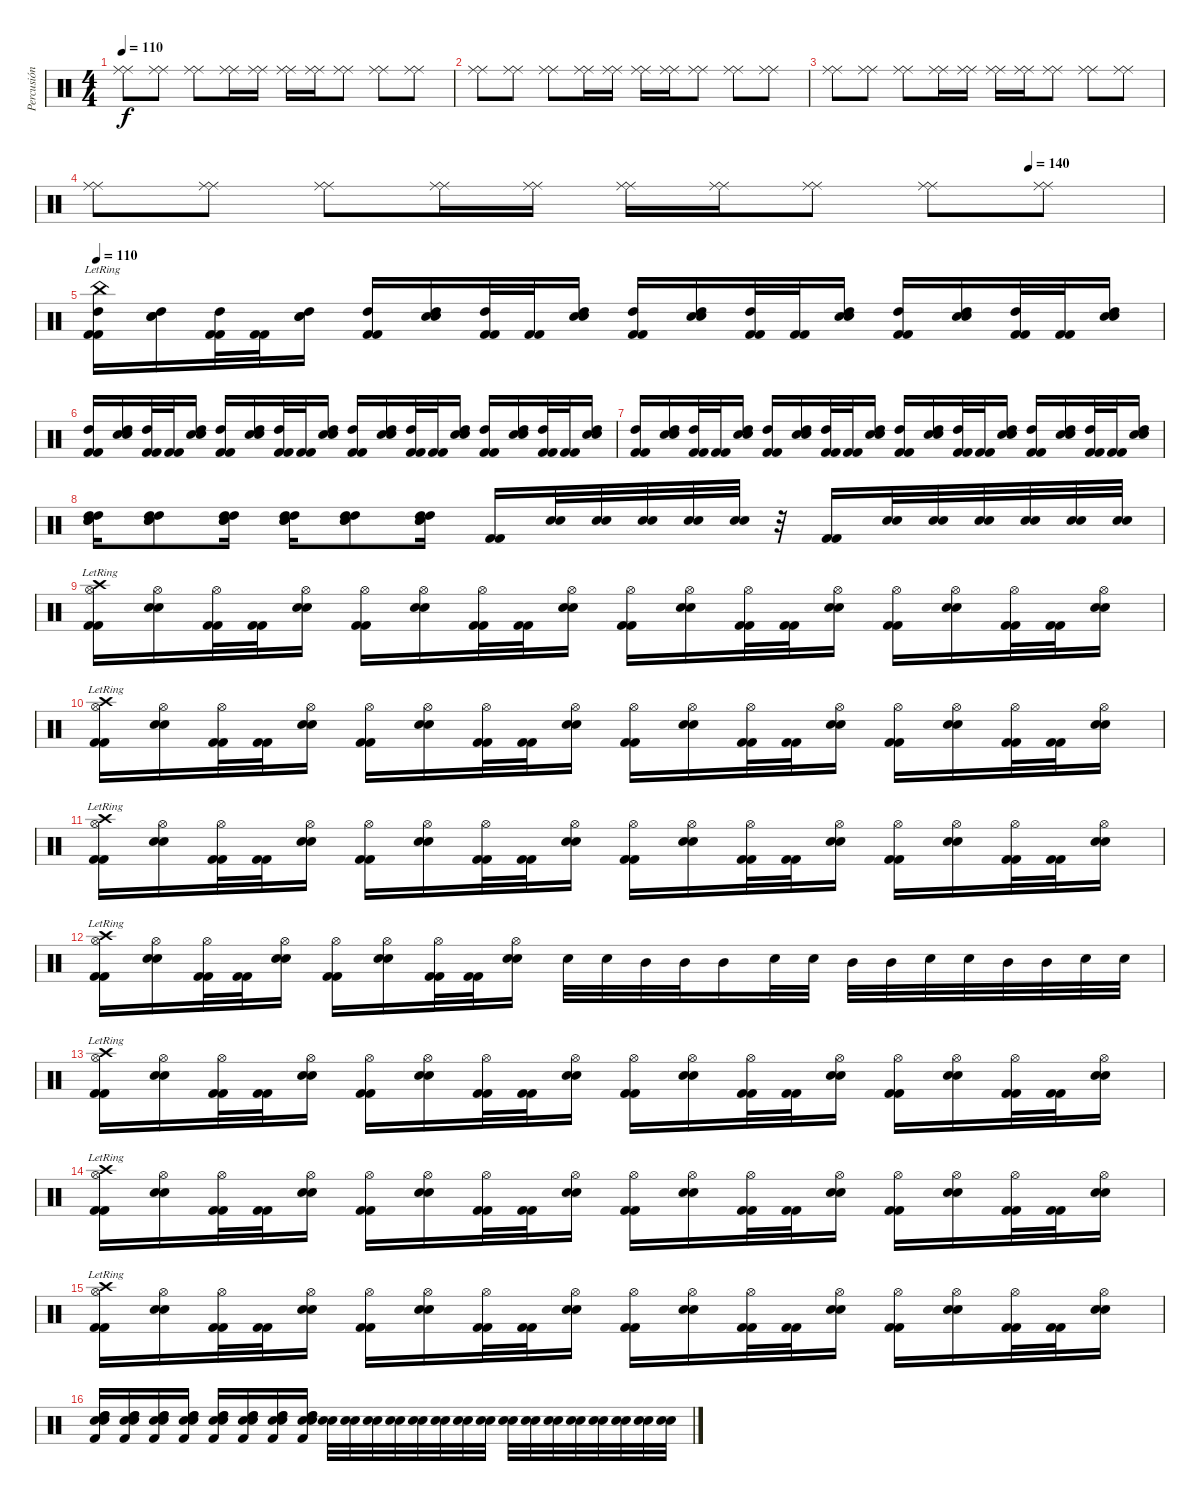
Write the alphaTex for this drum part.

\track ("Percusión" "Percusión") {instrument percussion}
\staff {score}
\articulation defaults
\ts (4 4)
\tempo 110
\clef neutral
\ks c
("Ride (middle)" "Ride (middle)").8{dy f} ("Ride (middle)" "Ride (middle)").8 ("Ride (middle)" "Ride (middle)").8 ("Ride (middle)" "Ride (middle)").16 ("Ride (middle)" "Ride (middle)").16 ("Ride (middle)" "Ride (middle)").16 ("Ride (middle)" "Ride (middle)").16 ("Ride (middle)" "Ride (middle)").8 ("Ride (middle)" "Ride (middle)").8 ("Ride (middle)" "Ride (middle)").8 |
("Ride (middle)" "Ride (middle)").8 ("Ride (middle)" "Ride (middle)").8 ("Ride (middle)" "Ride (middle)").8 ("Ride (middle)" "Ride (middle)").16 ("Ride (middle)" "Ride (middle)").16 ("Ride (middle)" "Ride (middle)").16 ("Ride (middle)" "Ride (middle)").16 ("Ride (middle)" "Ride (middle)").8 ("Ride (middle)" "Ride (middle)").8 ("Ride (middle)" "Ride (middle)").8 |
("Ride (middle)" "Ride (middle)").8 ("Ride (middle)" "Ride (middle)").8 ("Ride (middle)" "Ride (middle)").8 ("Ride (middle)" "Ride (middle)").16 ("Ride (middle)" "Ride (middle)").16 ("Ride (middle)" "Ride (middle)").16 ("Ride (middle)" "Ride (middle)").16 ("Ride (middle)" "Ride (middle)").8 ("Ride (middle)" "Ride (middle)").8 ("Ride (middle)" "Ride (middle)").8 |
\tempo (140 0.875)
("Ride (middle)" "Ride (middle)").8 ("Ride (middle)" "Ride (middle)").8 ("Ride (middle)" "Ride (middle)").8 ("Ride (middle)" "Ride (middle)").16 ("Ride (middle)" "Ride (middle)").16 ("Ride (middle)" "Ride (middle)").16 ("Ride (middle)" "Ride (middle)").16 ("Ride (middle)" "Ride (middle)").8 ("Ride (middle)" "Ride (middle)").8 ("Ride (middle)" "Ride (middle)").8 |
\tempo 110
("Kick (hit) 2" "Kick (hit) 2" "High Tom (hit)" "China (hit)"{lr}).16 ("Snare (hit) 2" "Snare (hit) 2" "High Tom (hit)").16 ("Kick (hit) 2" "Kick (hit) 2" "High Tom (hit)").32 ("Kick (hit) 2" "Kick (hit) 2").32 ("Snare (hit) 2" "Snare (hit) 2" "High Tom (hit)").16 ("Kick (hit) 2" "Kick (hit) 2" "High Tom (hit)").16 ("Snare (hit) 2" "Snare (hit) 2" "High Tom (hit)").16 ("Kick (hit) 2" "Kick (hit) 2" "High Tom (hit)").32 ("Kick (hit) 2" "Kick (hit) 2").32 ("Snare (hit) 2" "Snare (hit) 2" "High Tom (hit)").16 ("Kick (hit) 2" "Kick (hit) 2" "High Tom (hit)").16 ("Snare (hit) 2" "Snare (hit) 2" "High Tom (hit)").16 ("Kick (hit) 2" "Kick (hit) 2" "High Tom (hit)").32 ("Kick (hit) 2" "Kick (hit) 2").32 ("Snare (hit) 2" "Snare (hit) 2" "High Tom (hit)").16 ("Kick (hit) 2" "Kick (hit) 2" "High Tom (hit)").16 ("Snare (hit) 2" "Snare (hit) 2" "High Tom (hit)").16 ("Kick (hit) 2" "Kick (hit) 2" "High Tom (hit)").32 ("Kick (hit) 2" "Kick (hit) 2").32 ("Snare (hit) 2" "Snare (hit) 2" "High Tom (hit)").16 |
("Kick (hit) 2" "Kick (hit) 2" "High Tom (hit)").16 ("Snare (hit) 2" "Snare (hit) 2" "High Tom (hit)").16 ("Kick (hit) 2" "Kick (hit) 2" "High Tom (hit)").32 ("Kick (hit) 2" "Kick (hit) 2").32 ("Snare (hit) 2" "Snare (hit) 2" "High Tom (hit)").16 ("Kick (hit) 2" "Kick (hit) 2" "High Tom (hit)").16 ("Snare (hit) 2" "Snare (hit) 2" "High Tom (hit)").16 ("Kick (hit) 2" "Kick (hit) 2" "High Tom (hit)").32 ("Kick (hit) 2" "Kick (hit) 2").32 ("Snare (hit) 2" "Snare (hit) 2" "High Tom (hit)").16 ("Kick (hit) 2" "Kick (hit) 2" "High Tom (hit)").16 ("Snare (hit) 2" "Snare (hit) 2" "High Tom (hit)").16 ("Kick (hit) 2" "Kick (hit) 2" "High Tom (hit)").32 ("Kick (hit) 2" "Kick (hit) 2").32 ("Snare (hit) 2" "Snare (hit) 2" "High Tom (hit)").16 ("Kick (hit) 2" "Kick (hit) 2" "High Tom (hit)").16 ("Snare (hit) 2" "Snare (hit) 2" "High Tom (hit)").16 ("Kick (hit) 2" "Kick (hit) 2" "High Tom (hit)").32 ("Kick (hit) 2" "Kick (hit) 2").32 ("Snare (hit) 2" "Snare (hit) 2" "High Tom (hit)").16 |
("Kick (hit) 2" "Kick (hit) 2" "High Tom (hit)").16 ("Snare (hit) 2" "Snare (hit) 2" "High Tom (hit)").16 ("Kick (hit) 2" "Kick (hit) 2" "High Tom (hit)").32 ("Kick (hit) 2" "Kick (hit) 2").32 ("Snare (hit) 2" "Snare (hit) 2" "High Tom (hit)").16 ("Kick (hit) 2" "Kick (hit) 2" "High Tom (hit)").16 ("Snare (hit) 2" "Snare (hit) 2" "High Tom (hit)").16 ("Kick (hit) 2" "Kick (hit) 2" "High Tom (hit)").32 ("Kick (hit) 2" "Kick (hit) 2").32 ("Snare (hit) 2" "Snare (hit) 2" "High Tom (hit)").16 ("Kick (hit) 2" "Kick (hit) 2" "High Tom (hit)").16 ("Snare (hit) 2" "Snare (hit) 2" "High Tom (hit)").16 ("Kick (hit) 2" "Kick (hit) 2" "High Tom (hit)").32 ("Kick (hit) 2" "Kick (hit) 2").32 ("Snare (hit) 2" "Snare (hit) 2" "High Tom (hit)").16 ("Kick (hit) 2" "Kick (hit) 2" "High Tom (hit)").16 ("Snare (hit) 2" "Snare (hit) 2" "High Tom (hit)").16 ("Kick (hit) 2" "Kick (hit) 2" "High Tom (hit)").32 ("Kick (hit) 2" "Kick (hit) 2").32 ("Snare (hit) 2" "Snare (hit) 2" "High Tom (hit)").16 |
("Snare (hit) 2" "Snare (hit) 2" "High Tom (hit)" "High Tom (hit)").16 ("Snare (hit) 2" "Snare (hit) 2" "High Tom (hit)" "High Tom (hit)").8 ("Snare (hit) 2" "Snare (hit) 2" "High Tom (hit)" "High Tom (hit)").16 ("Snare (hit) 2" "Snare (hit) 2" "High Tom (hit)" "High Tom (hit)").16 ("Snare (hit) 2" "Snare (hit) 2" "High Tom (hit)" "High Tom (hit)").8 ("Snare (hit) 2" "Snare (hit) 2" "High Tom (hit)" "High Tom (hit)").16 ("Kick (hit) 2" "Kick (hit) 2").16 ("Snare (hit) 2" "Snare (hit) 2").32 ("Snare (hit) 2" "Snare (hit) 2").32 ("Snare (hit) 2" "Snare (hit) 2").32 ("Snare (hit) 2" "Snare (hit) 2").32 ("Snare (hit) 2" "Snare (hit) 2").32 r.32 ("Kick (hit) 2" "Kick (hit) 2").16 ("Snare (hit) 2" "Snare (hit) 2").32 ("Snare (hit) 2" "Snare (hit) 2").32 ("Snare (hit) 2" "Snare (hit) 2").32 ("Snare (hit) 2" "Snare (hit) 2").32 ("Snare (hit) 2" "Snare (hit) 2").32 ("Snare (hit) 2" "Snare (hit) 2").32 |
("Kick (hit) 2" "Kick (hit) 2" "Hi-Hat (open)" "Crash high (hit)"{lr}).16 ("Snare (hit) 2" "Snare (hit) 2" "Hi-Hat (open)").16 ("Kick (hit) 2" "Kick (hit) 2" "Hi-Hat (open)").32 ("Kick (hit) 2" "Kick (hit) 2").32 ("Snare (hit) 2" "Snare (hit) 2" "Hi-Hat (open)").16 ("Kick (hit) 2" "Kick (hit) 2" "Hi-Hat (open)").16 ("Snare (hit) 2" "Snare (hit) 2" "Hi-Hat (open)").16 ("Kick (hit) 2" "Kick (hit) 2" "Hi-Hat (open)").32 ("Kick (hit) 2" "Kick (hit) 2").32 ("Snare (hit) 2" "Snare (hit) 2" "Hi-Hat (open)").16 ("Kick (hit) 2" "Kick (hit) 2" "Hi-Hat (open)").16 ("Snare (hit) 2" "Snare (hit) 2" "Hi-Hat (open)").16 ("Kick (hit) 2" "Kick (hit) 2" "Hi-Hat (open)").32 ("Kick (hit) 2" "Kick (hit) 2").32 ("Snare (hit) 2" "Snare (hit) 2" "Hi-Hat (open)").16 ("Kick (hit) 2" "Kick (hit) 2" "Hi-Hat (open)").16 ("Snare (hit) 2" "Snare (hit) 2" "Hi-Hat (open)").16 ("Kick (hit) 2" "Kick (hit) 2" "Hi-Hat (open)").32 ("Kick (hit) 2" "Kick (hit) 2").32 ("Snare (hit) 2" "Snare (hit) 2" "Hi-Hat (open)").16 |
("Kick (hit) 2" "Kick (hit) 2" "Hi-Hat (open)" "Crash high (hit)"{lr}).16 ("Snare (hit) 2" "Snare (hit) 2" "Hi-Hat (open)").16 ("Kick (hit) 2" "Kick (hit) 2" "Hi-Hat (open)").32 ("Kick (hit) 2" "Kick (hit) 2").32 ("Snare (hit) 2" "Snare (hit) 2" "Hi-Hat (open)").16 ("Kick (hit) 2" "Kick (hit) 2" "Hi-Hat (open)").16 ("Snare (hit) 2" "Snare (hit) 2" "Hi-Hat (open)").16 ("Kick (hit) 2" "Kick (hit) 2" "Hi-Hat (open)").32 ("Kick (hit) 2" "Kick (hit) 2").32 ("Snare (hit) 2" "Snare (hit) 2" "Hi-Hat (open)").16 ("Kick (hit) 2" "Kick (hit) 2" "Hi-Hat (open)").16 ("Snare (hit) 2" "Snare (hit) 2" "Hi-Hat (open)").16 ("Kick (hit) 2" "Kick (hit) 2" "Hi-Hat (open)").32 ("Kick (hit) 2" "Kick (hit) 2").32 ("Snare (hit) 2" "Snare (hit) 2" "Hi-Hat (open)").16 ("Kick (hit) 2" "Kick (hit) 2" "Hi-Hat (open)").16 ("Snare (hit) 2" "Snare (hit) 2" "Hi-Hat (open)").16 ("Kick (hit) 2" "Kick (hit) 2" "Hi-Hat (open)").32 ("Kick (hit) 2" "Kick (hit) 2").32 ("Snare (hit) 2" "Snare (hit) 2" "Hi-Hat (open)").16 |
("Kick (hit) 2" "Kick (hit) 2" "Hi-Hat (open)" "Crash high (hit)"{lr}).16 ("Snare (hit) 2" "Snare (hit) 2" "Hi-Hat (open)").16 ("Kick (hit) 2" "Kick (hit) 2" "Hi-Hat (open)").32 ("Kick (hit) 2" "Kick (hit) 2").32 ("Snare (hit) 2" "Snare (hit) 2" "Hi-Hat (open)").16 ("Kick (hit) 2" "Kick (hit) 2" "Hi-Hat (open)").16 ("Snare (hit) 2" "Snare (hit) 2" "Hi-Hat (open)").16 ("Kick (hit) 2" "Kick (hit) 2" "Hi-Hat (open)").32 ("Kick (hit) 2" "Kick (hit) 2").32 ("Snare (hit) 2" "Snare (hit) 2" "Hi-Hat (open)").16 ("Kick (hit) 2" "Kick (hit) 2" "Hi-Hat (open)").16 ("Snare (hit) 2" "Snare (hit) 2" "Hi-Hat (open)").16 ("Kick (hit) 2" "Kick (hit) 2" "Hi-Hat (open)").32 ("Kick (hit) 2" "Kick (hit) 2").32 ("Snare (hit) 2" "Snare (hit) 2" "Hi-Hat (open)").16 ("Kick (hit) 2" "Kick (hit) 2" "Hi-Hat (open)").16 ("Snare (hit) 2" "Snare (hit) 2" "Hi-Hat (open)").16 ("Kick (hit) 2" "Kick (hit) 2" "Hi-Hat (open)").32 ("Kick (hit) 2" "Kick (hit) 2").32 ("Snare (hit) 2" "Snare (hit) 2" "Hi-Hat (open)").16 |
("Kick (hit) 2" "Kick (hit) 2" "Hi-Hat (open)" "Crash high (hit)"{lr}).16 ("Snare (hit) 2" "Snare (hit) 2" "Hi-Hat (open)").16 ("Kick (hit) 2" "Kick (hit) 2" "Hi-Hat (open)").32 ("Kick (hit) 2" "Kick (hit) 2").32 ("Snare (hit) 2" "Snare (hit) 2" "Hi-Hat (open)").16 ("Kick (hit) 2" "Kick (hit) 2" "Hi-Hat (open)").16 ("Snare (hit) 2" "Snare (hit) 2" "Hi-Hat (open)").16 ("Kick (hit) 2" "Kick (hit) 2" "Hi-Hat (open)").32 ("Kick (hit) 2" "Kick (hit) 2").32 ("Snare (hit) 2" "Snare (hit) 2" "Hi-Hat (open)").16 "Snare (hit) 2".32 "Snare (hit) 2".32 "Mid Tom (hit)".32 "Mid Tom (hit)".32 "Mid Tom (hit)".16 "Snare (hit) 2".32 "Snare (hit) 2".32 "Mid Tom (hit)".32 "Mid Tom (hit)".32 "Snare (hit) 2".32 "Snare (hit) 2".32 "Mid Tom (hit)".32 "Mid Tom (hit)".32 "Snare (hit) 2".32 "Snare (hit) 2".32 |
("Kick (hit) 2" "Kick (hit) 2" "Hi-Hat (open)" "Crash high (hit)"{lr}).16 ("Snare (hit) 2" "Snare (hit) 2" "Hi-Hat (open)").16 ("Kick (hit) 2" "Kick (hit) 2" "Hi-Hat (open)").32 ("Kick (hit) 2" "Kick (hit) 2").32 ("Snare (hit) 2" "Snare (hit) 2" "Hi-Hat (open)").16 ("Kick (hit) 2" "Kick (hit) 2" "Hi-Hat (open)").16 ("Snare (hit) 2" "Snare (hit) 2" "Hi-Hat (open)").16 ("Kick (hit) 2" "Kick (hit) 2" "Hi-Hat (open)").32 ("Kick (hit) 2" "Kick (hit) 2").32 ("Snare (hit) 2" "Snare (hit) 2" "Hi-Hat (open)").16 ("Kick (hit) 2" "Kick (hit) 2" "Hi-Hat (open)").16 ("Snare (hit) 2" "Snare (hit) 2" "Hi-Hat (open)").16 ("Kick (hit) 2" "Kick (hit) 2" "Hi-Hat (open)").32 ("Kick (hit) 2" "Kick (hit) 2").32 ("Snare (hit) 2" "Snare (hit) 2" "Hi-Hat (open)").16 ("Kick (hit) 2" "Kick (hit) 2" "Hi-Hat (open)").16 ("Snare (hit) 2" "Snare (hit) 2" "Hi-Hat (open)").16 ("Kick (hit) 2" "Kick (hit) 2" "Hi-Hat (open)").32 ("Kick (hit) 2" "Kick (hit) 2").32 ("Snare (hit) 2" "Snare (hit) 2" "Hi-Hat (open)").16 |
("Kick (hit) 2" "Kick (hit) 2" "Hi-Hat (open)" "Crash high (hit)"{lr}).16 ("Snare (hit) 2" "Snare (hit) 2" "Hi-Hat (open)").16 ("Kick (hit) 2" "Kick (hit) 2" "Hi-Hat (open)").32 ("Kick (hit) 2" "Kick (hit) 2").32 ("Snare (hit) 2" "Snare (hit) 2" "Hi-Hat (open)").16 ("Kick (hit) 2" "Kick (hit) 2" "Hi-Hat (open)").16 ("Snare (hit) 2" "Snare (hit) 2" "Hi-Hat (open)").16 ("Kick (hit) 2" "Kick (hit) 2" "Hi-Hat (open)").32 ("Kick (hit) 2" "Kick (hit) 2").32 ("Snare (hit) 2" "Snare (hit) 2" "Hi-Hat (open)").16 ("Kick (hit) 2" "Kick (hit) 2" "Hi-Hat (open)").16 ("Snare (hit) 2" "Snare (hit) 2" "Hi-Hat (open)").16 ("Kick (hit) 2" "Kick (hit) 2" "Hi-Hat (open)").32 ("Kick (hit) 2" "Kick (hit) 2").32 ("Snare (hit) 2" "Snare (hit) 2" "Hi-Hat (open)").16 ("Kick (hit) 2" "Kick (hit) 2" "Hi-Hat (open)").16 ("Snare (hit) 2" "Snare (hit) 2" "Hi-Hat (open)").16 ("Kick (hit) 2" "Kick (hit) 2" "Hi-Hat (open)").32 ("Kick (hit) 2" "Kick (hit) 2").32 ("Snare (hit) 2" "Snare (hit) 2" "Hi-Hat (open)").16 |
("Kick (hit) 2" "Kick (hit) 2" "Hi-Hat (open)" "Crash high (hit)"{lr}).16 ("Snare (hit) 2" "Snare (hit) 2" "Hi-Hat (open)").16 ("Kick (hit) 2" "Kick (hit) 2" "Hi-Hat (open)").32 ("Kick (hit) 2" "Kick (hit) 2").32 ("Snare (hit) 2" "Snare (hit) 2" "Hi-Hat (open)").16 ("Kick (hit) 2" "Kick (hit) 2" "Hi-Hat (open)").16 ("Snare (hit) 2" "Snare (hit) 2" "Hi-Hat (open)").16 ("Kick (hit) 2" "Kick (hit) 2" "Hi-Hat (open)").32 ("Kick (hit) 2" "Kick (hit) 2").32 ("Snare (hit) 2" "Snare (hit) 2" "Hi-Hat (open)").16 ("Kick (hit) 2" "Kick (hit) 2" "Hi-Hat (open)").16 ("Snare (hit) 2" "Snare (hit) 2" "Hi-Hat (open)").16 ("Kick (hit) 2" "Kick (hit) 2" "Hi-Hat (open)").32 ("Kick (hit) 2" "Kick (hit) 2").32 ("Snare (hit) 2" "Snare (hit) 2" "Hi-Hat (open)").16 ("Kick (hit) 2" "Kick (hit) 2" "Hi-Hat (open)").16 ("Snare (hit) 2" "Snare (hit) 2" "Hi-Hat (open)").16 ("Kick (hit) 2" "Kick (hit) 2" "Hi-Hat (open)").32 ("Kick (hit) 2" "Kick (hit) 2").32 ("Snare (hit) 2" "Snare (hit) 2" "Hi-Hat (open)").16 |
("Snare (hit) 2" "Snare (hit) 2" "High Tom (hit)" "High Tom (hit)" "Kick (hit) 2").16 ("Snare (hit) 2" "Snare (hit) 2" "High Tom (hit)" "High Tom (hit)" "Kick (hit) 2").16 ("Snare (hit) 2" "Snare (hit) 2" "High Tom (hit)" "High Tom (hit)" "Kick (hit) 2").16 ("Snare (hit) 2" "Snare (hit) 2" "High Tom (hit)" "High Tom (hit)" "Kick (hit) 2").16 ("Snare (hit) 2" "Snare (hit) 2" "High Tom (hit)" "High Tom (hit)" "Kick (hit) 2").16 ("Snare (hit) 2" "Snare (hit) 2" "High Tom (hit)" "High Tom (hit)" "Kick (hit) 2").16 ("Snare (hit) 2" "Snare (hit) 2" "High Tom (hit)" "High Tom (hit)" "Kick (hit) 2").16 ("Snare (hit) 2" "Snare (hit) 2" "High Tom (hit)" "High Tom (hit)" "Kick (hit) 2").16 ("Snare (hit) 2" "Snare (hit) 2").32 ("Snare (hit) 2" "Snare (hit) 2").32 ("Snare (hit) 2" "Snare (hit) 2").32 ("Snare (hit) 2" "Snare (hit) 2").32 ("Snare (hit) 2" "Snare (hit) 2").32 ("Snare (hit) 2" "Snare (hit) 2").32 ("Snare (hit) 2" "Snare (hit) 2").32 ("Snare (hit) 2" "Snare (hit) 2").32 ("Snare (hit) 2" "Snare (hit) 2").32 ("Snare (hit) 2" "Snare (hit) 2").32 ("Snare (hit) 2" "Snare (hit) 2").32 ("Snare (hit) 2" "Snare (hit) 2").32 ("Snare (hit) 2" "Snare (hit) 2").32 ("Snare (hit) 2" "Snare (hit) 2").32 ("Snare (hit) 2" "Snare (hit) 2").32 ("Snare (hit) 2" "Snare (hit) 2").32
